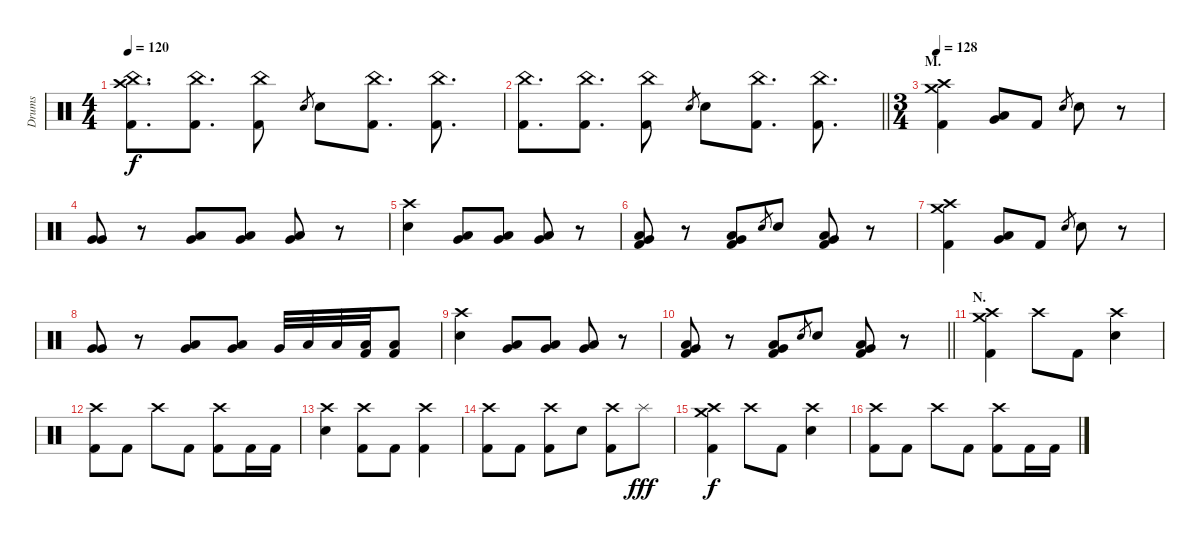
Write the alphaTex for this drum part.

\track ("Drums" "Drums") {instrument percussion}
\staff {score}
\articulation defaults
\ts (4 4)
\tempo 120
\clef neutral
\ks c
("China (hit)" "Crash high (hit)" "Kick (hit) 2").8{d dy f} ("China (hit)" "Kick (hit) 2").8{d} ("China (hit)" "Kick (hit) 2").8 "Electric Snare (hit)".8{gr} "Electric Snare (hit)".8 ("China (hit)" "Kick (hit) 2").8{d} ("China (hit)" "Kick (hit) 2").8{d} |
\barLineRight lightlight
("China (hit)" "Kick (hit) 2").8{d} ("China (hit)" "Kick (hit) 2").8{d} ("China (hit)" "Kick (hit) 2").8 "Electric Snare (hit)".8{gr} "Electric Snare (hit)".8 ("China (hit)" "Kick (hit) 2").8{d} ("China (hit)" "Kick (hit) 2").8{d} |
\ts (3 4)
\section ("" "M.")
\tempo 128
("Crash medium (hit)" "Crash high (hit)" "Kick (hit) 2").4 ("Very Low Tom (hit)" "Low Floor Tom (hit)").8{bu 120} "Kick (hit) 2".8 "Electric Snare (hit)".8{gr} "Electric Snare (hit)".8 r.8 |
("Very Low Tom (hit)" "Very Low Tom (hit)").8{bu 120} r.8 ("Low Tom (hit)" "Very Low Tom (hit)").8 ("Very Low Tom (hit)" "Low Floor Tom (hit)").8 ("Very Low Tom (hit)" "Low Floor Tom (hit)").8 r.8 |
("Crash high (hit)" "Electric Snare (hit)").4 ("Low Tom (hit)" "Very Low Tom (hit)").8 ("Very Low Tom (hit)" "Low Floor Tom (hit)").8 ("Very Low Tom (hit)" "Low Floor Tom (hit)").8 r.8 |
("Very Low Tom (hit)" "Low Floor Tom (hit)" "Kick (hit) 2").8 r.8 ("Very Low Tom (hit)" "Low Floor Tom (hit)" "Kick (hit) 2").8 "Electric Snare (hit)".8{gr} "Electric Snare (hit)".8 ("Very Low Tom (hit)" "Low Floor Tom (hit)" "Kick (hit) 2").8 r.8 |
("Crash medium (hit)" "Crash high (hit)" "Kick (hit) 2").4 ("Very Low Tom (hit)" "Low Floor Tom (hit)").8{bu 120} "Kick (hit) 2".8 "Electric Snare (hit)".8{gr} "Electric Snare (hit)".8 r.8 |
("Very Low Tom (hit)" "Very Low Tom (hit)").8{bu 120} r.8 ("Low Tom (hit)" "Very Low Tom (hit)").8 ("Very Low Tom (hit)" "Low Floor Tom (hit)").8 "Very Low Tom (hit)".32 "Low Floor Tom (hit)".32 "Low Floor Tom (hit)".32 ("Low Floor Tom (hit)" "Kick (hit) 2").32 ("Low Floor Tom (hit)" "Kick (hit) 2").8 |
("Crash high (hit)" "Electric Snare (hit)").4 ("Low Tom (hit)" "Very Low Tom (hit)").8 ("Very Low Tom (hit)" "Low Floor Tom (hit)").8 ("Very Low Tom (hit)" "Low Floor Tom (hit)").8 r.8 |
\barLineRight lightlight
("Very Low Tom (hit)" "Low Floor Tom (hit)" "Kick (hit) 2").8 r.8 ("Very Low Tom (hit)" "Low Floor Tom (hit)" "Kick (hit) 2").8 "Electric Snare (hit)".8{gr} "Electric Snare (hit)".8 ("Very Low Tom (hit)" "Low Floor Tom (hit)" "Kick (hit) 2").8 r.8 |
\section ("" "N.")
("Crash medium (hit)" "Crash high (hit)" "Kick (hit) 2").4 "Crash high (hit)".8 "Kick (hit) 2".8 ("Crash high (hit)" "Electric Snare (hit)").4 |
("Crash high (hit)" "Kick (hit) 2").8 "Kick (hit) 2".8 "Crash high (hit)".8 "Kick (hit) 2".8 ("Crash high (hit)" "Kick (hit) 2").8 "Kick (hit) 2".16 "Kick (hit) 2".16 |
("Crash high (hit)" "Electric Snare (hit)").4 ("Crash high (hit)" "Kick (hit) 2").8 "Kick (hit) 2".8 ("Crash high (hit)" "Kick (hit) 2").4 |
("Crash high (hit)" "Kick (hit) 2").8 "Kick (hit) 2".8 ("Crash high (hit)" "Kick (hit) 2").8 "Electric Snare (hit)".8 ("Crash high (hit)" "Kick (hit) 2").8 "Splash (hit)".8{dy fff} |
("Crash medium (hit)" "Crash high (hit)" "Kick (hit) 2").4{dy f} "Crash high (hit)".8 "Kick (hit) 2".8 ("Crash high (hit)" "Electric Snare (hit)").4 |
("Crash high (hit)" "Kick (hit) 2").8 "Kick (hit) 2".8 "Crash high (hit)".8 "Kick (hit) 2".8 ("Crash high (hit)" "Kick (hit) 2").8 "Kick (hit) 2".16 "Kick (hit) 2".16
